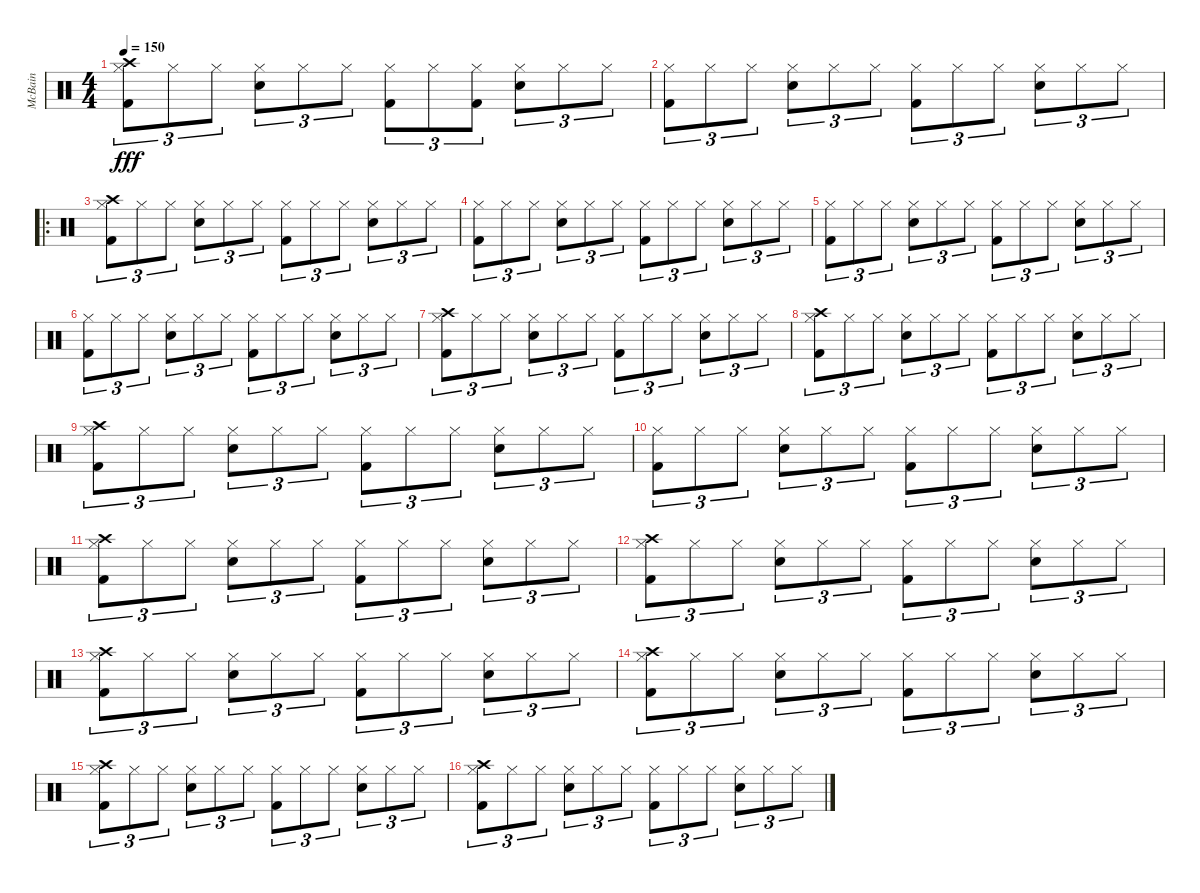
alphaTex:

\track ("McBain" "McBain") {instrument percussion}
\staff {score}
\articulation defaults
\ts (4 4)
\tempo 150
\clef neutral
\ks c
("Hi-Hat (closed)" "Kick (hit) 2" "Crash high (hit)").8{tu (3 2) dy fff} "Hi-Hat (closed)".8{tu (3 2)} "Hi-Hat (closed)".8{tu (3 2)} ("Hi-Hat (closed)" "Snare (hit) 2").8{tu (3 2)} "Hi-Hat (closed)".8{tu (3 2)} "Hi-Hat (closed)".8{tu (3 2)} ("Hi-Hat (closed)" "Kick (hit) 2").8{tu (3 2)} "Hi-Hat (closed)".8{tu (3 2)} ("Hi-Hat (closed)" "Kick (hit) 2").8{tu (3 2)} ("Hi-Hat (closed)" "Snare (hit) 2").8{tu (3 2)} "Hi-Hat (closed)".8{tu (3 2)} "Hi-Hat (closed)".8{tu (3 2)} |
("Hi-Hat (closed)" "Kick (hit) 2").8{tu (3 2)} "Hi-Hat (closed)".8{tu (3 2)} "Hi-Hat (closed)".8{tu (3 2)} ("Hi-Hat (closed)" "Snare (hit) 2").8{tu (3 2)} "Hi-Hat (closed)".8{tu (3 2)} "Hi-Hat (closed)".8{tu (3 2)} ("Hi-Hat (closed)" "Kick (hit) 2").8{tu (3 2)} "Hi-Hat (closed)".8{tu (3 2)} "Hi-Hat (closed)".8{tu (3 2)} ("Hi-Hat (closed)" "Snare (hit) 2").8{tu (3 2)} "Hi-Hat (closed)".8{tu (3 2)} "Hi-Hat (closed)".8{tu (3 2)} |
\ro
("Hi-Hat (closed)" "Kick (hit) 2" "Crash high (hit)").8{tu (3 2)} "Hi-Hat (closed)".8{tu (3 2)} "Hi-Hat (closed)".8{tu (3 2)} ("Hi-Hat (closed)" "Snare (hit) 2").8{tu (3 2)} "Hi-Hat (closed)".8{tu (3 2)} "Hi-Hat (closed)".8{tu (3 2)} ("Hi-Hat (closed)" "Kick (hit) 2").8{tu (3 2)} "Hi-Hat (closed)".8{tu (3 2)} "Hi-Hat (closed)".8{tu (3 2)} ("Hi-Hat (closed)" "Snare (hit) 2").8{tu (3 2)} "Hi-Hat (closed)".8{tu (3 2)} "Hi-Hat (closed)".8{tu (3 2)} |
("Hi-Hat (closed)" "Kick (hit) 2").8{tu (3 2)} "Hi-Hat (closed)".8{tu (3 2)} "Hi-Hat (closed)".8{tu (3 2)} ("Hi-Hat (closed)" "Snare (hit) 2").8{tu (3 2)} "Hi-Hat (closed)".8{tu (3 2)} "Hi-Hat (closed)".8{tu (3 2)} ("Hi-Hat (closed)" "Kick (hit) 2").8{tu (3 2)} "Hi-Hat (closed)".8{tu (3 2)} "Hi-Hat (closed)".8{tu (3 2)} ("Hi-Hat (closed)" "Snare (hit) 2").8{tu (3 2)} "Hi-Hat (closed)".8{tu (3 2)} "Hi-Hat (closed)".8{tu (3 2)} |
("Hi-Hat (closed)" "Kick (hit) 2").8{tu (3 2)} "Hi-Hat (closed)".8{tu (3 2)} "Hi-Hat (closed)".8{tu (3 2)} ("Hi-Hat (closed)" "Snare (hit) 2").8{tu (3 2)} "Hi-Hat (closed)".8{tu (3 2)} "Hi-Hat (closed)".8{tu (3 2)} ("Hi-Hat (closed)" "Kick (hit) 2").8{tu (3 2)} "Hi-Hat (closed)".8{tu (3 2)} "Hi-Hat (closed)".8{tu (3 2)} ("Hi-Hat (closed)" "Snare (hit) 2").8{tu (3 2)} "Hi-Hat (closed)".8{tu (3 2)} "Hi-Hat (closed)".8{tu (3 2)} |
("Hi-Hat (closed)" "Kick (hit) 2").8{tu (3 2)} "Hi-Hat (closed)".8{tu (3 2)} "Hi-Hat (closed)".8{tu (3 2)} ("Hi-Hat (closed)" "Snare (hit) 2").8{tu (3 2)} "Hi-Hat (closed)".8{tu (3 2)} "Hi-Hat (closed)".8{tu (3 2)} ("Hi-Hat (closed)" "Kick (hit) 2").8{tu (3 2)} "Hi-Hat (closed)".8{tu (3 2)} "Hi-Hat (closed)".8{tu (3 2)} ("Hi-Hat (closed)" "Snare (hit) 2").8{tu (3 2)} "Hi-Hat (closed)".8{tu (3 2)} "Hi-Hat (closed)".8{tu (3 2)} |
("Hi-Hat (closed)" "Kick (hit) 2" "Crash high (hit)").8{tu (3 2)} "Hi-Hat (closed)".8{tu (3 2)} "Hi-Hat (closed)".8{tu (3 2)} ("Hi-Hat (closed)" "Snare (hit) 2").8{tu (3 2)} "Hi-Hat (closed)".8{tu (3 2)} "Hi-Hat (closed)".8{tu (3 2)} ("Hi-Hat (closed)" "Kick (hit) 2").8{tu (3 2)} "Hi-Hat (closed)".8{tu (3 2)} "Hi-Hat (closed)".8{tu (3 2)} ("Hi-Hat (closed)" "Snare (hit) 2").8{tu (3 2)} "Hi-Hat (closed)".8{tu (3 2)} "Hi-Hat (closed)".8{tu (3 2)} |
("Hi-Hat (closed)" "Kick (hit) 2" "Crash high (hit)").8{tu (3 2)} "Hi-Hat (closed)".8{tu (3 2)} "Hi-Hat (closed)".8{tu (3 2)} ("Hi-Hat (closed)" "Snare (hit) 2").8{tu (3 2)} "Hi-Hat (closed)".8{tu (3 2)} "Hi-Hat (closed)".8{tu (3 2)} ("Hi-Hat (closed)" "Kick (hit) 2").8{tu (3 2)} "Hi-Hat (closed)".8{tu (3 2)} "Hi-Hat (closed)".8{tu (3 2)} ("Hi-Hat (closed)" "Snare (hit) 2").8{tu (3 2)} "Hi-Hat (closed)".8{tu (3 2)} "Hi-Hat (closed)".8{tu (3 2)} |
("Hi-Hat (closed)" "Kick (hit) 2" "Crash high (hit)").8{tu (3 2)} "Hi-Hat (closed)".8{tu (3 2)} "Hi-Hat (closed)".8{tu (3 2)} ("Hi-Hat (closed)" "Snare (hit) 2").8{tu (3 2)} "Hi-Hat (closed)".8{tu (3 2)} "Hi-Hat (closed)".8{tu (3 2)} ("Hi-Hat (closed)" "Kick (hit) 2").8{tu (3 2)} "Hi-Hat (closed)".8{tu (3 2)} "Hi-Hat (closed)".8{tu (3 2)} ("Hi-Hat (closed)" "Snare (hit) 2").8{tu (3 2)} "Hi-Hat (closed)".8{tu (3 2)} "Hi-Hat (closed)".8{tu (3 2)} |
("Hi-Hat (closed)" "Kick (hit) 2").8{tu (3 2)} "Hi-Hat (closed)".8{tu (3 2)} "Hi-Hat (closed)".8{tu (3 2)} ("Hi-Hat (closed)" "Snare (hit) 2").8{tu (3 2)} "Hi-Hat (closed)".8{tu (3 2)} "Hi-Hat (closed)".8{tu (3 2)} ("Hi-Hat (closed)" "Kick (hit) 2").8{tu (3 2)} "Hi-Hat (closed)".8{tu (3 2)} "Hi-Hat (closed)".8{tu (3 2)} ("Hi-Hat (closed)" "Snare (hit) 2").8{tu (3 2)} "Hi-Hat (closed)".8{tu (3 2)} "Hi-Hat (closed)".8{tu (3 2)} |
("Hi-Hat (closed)" "Kick (hit) 2" "Crash high (hit)").8{tu (3 2)} "Hi-Hat (closed)".8{tu (3 2)} "Hi-Hat (closed)".8{tu (3 2)} ("Hi-Hat (closed)" "Snare (hit) 2").8{tu (3 2)} "Hi-Hat (closed)".8{tu (3 2)} "Hi-Hat (closed)".8{tu (3 2)} ("Hi-Hat (closed)" "Kick (hit) 2").8{tu (3 2)} "Hi-Hat (closed)".8{tu (3 2)} "Hi-Hat (closed)".8{tu (3 2)} ("Hi-Hat (closed)" "Snare (hit) 2").8{tu (3 2)} "Hi-Hat (closed)".8{tu (3 2)} "Hi-Hat (closed)".8{tu (3 2)} |
("Hi-Hat (closed)" "Kick (hit) 2" "Crash high (hit)").8{tu (3 2)} "Hi-Hat (closed)".8{tu (3 2)} "Hi-Hat (closed)".8{tu (3 2)} ("Hi-Hat (closed)" "Snare (hit) 2").8{tu (3 2)} "Hi-Hat (closed)".8{tu (3 2)} "Hi-Hat (closed)".8{tu (3 2)} ("Hi-Hat (closed)" "Kick (hit) 2").8{tu (3 2)} "Hi-Hat (closed)".8{tu (3 2)} "Hi-Hat (closed)".8{tu (3 2)} ("Hi-Hat (closed)" "Snare (hit) 2").8{tu (3 2)} "Hi-Hat (closed)".8{tu (3 2)} "Hi-Hat (closed)".8{tu (3 2)} |
("Hi-Hat (closed)" "Kick (hit) 2" "Crash high (hit)").8{tu (3 2)} "Hi-Hat (closed)".8{tu (3 2)} "Hi-Hat (closed)".8{tu (3 2)} ("Hi-Hat (closed)" "Snare (hit) 2").8{tu (3 2)} "Hi-Hat (closed)".8{tu (3 2)} "Hi-Hat (closed)".8{tu (3 2)} ("Hi-Hat (closed)" "Kick (hit) 2").8{tu (3 2)} "Hi-Hat (closed)".8{tu (3 2)} "Hi-Hat (closed)".8{tu (3 2)} ("Hi-Hat (closed)" "Snare (hit) 2").8{tu (3 2)} "Hi-Hat (closed)".8{tu (3 2)} "Hi-Hat (closed)".8{tu (3 2)} |
("Hi-Hat (closed)" "Kick (hit) 2" "Crash high (hit)").8{tu (3 2)} "Hi-Hat (closed)".8{tu (3 2)} "Hi-Hat (closed)".8{tu (3 2)} ("Hi-Hat (closed)" "Snare (hit) 2").8{tu (3 2)} "Hi-Hat (closed)".8{tu (3 2)} "Hi-Hat (closed)".8{tu (3 2)} ("Hi-Hat (closed)" "Kick (hit) 2").8{tu (3 2)} "Hi-Hat (closed)".8{tu (3 2)} "Hi-Hat (closed)".8{tu (3 2)} ("Hi-Hat (closed)" "Snare (hit) 2").8{tu (3 2)} "Hi-Hat (closed)".8{tu (3 2)} "Hi-Hat (closed)".8{tu (3 2)} |
("Hi-Hat (closed)" "Kick (hit) 2" "Crash high (hit)").8{tu (3 2)} "Hi-Hat (closed)".8{tu (3 2)} "Hi-Hat (closed)".8{tu (3 2)} ("Hi-Hat (closed)" "Snare (hit) 2").8{tu (3 2)} "Hi-Hat (closed)".8{tu (3 2)} "Hi-Hat (closed)".8{tu (3 2)} ("Hi-Hat (closed)" "Kick (hit) 2").8{tu (3 2)} "Hi-Hat (closed)".8{tu (3 2)} "Hi-Hat (closed)".8{tu (3 2)} ("Hi-Hat (closed)" "Snare (hit) 2").8{tu (3 2)} "Hi-Hat (closed)".8{tu (3 2)} "Hi-Hat (closed)".8{tu (3 2)} |
("Hi-Hat (closed)" "Kick (hit) 2" "Crash high (hit)").8{tu (3 2)} "Hi-Hat (closed)".8{tu (3 2)} "Hi-Hat (closed)".8{tu (3 2)} ("Hi-Hat (closed)" "Snare (hit) 2").8{tu (3 2)} "Hi-Hat (closed)".8{tu (3 2)} "Hi-Hat (closed)".8{tu (3 2)} ("Hi-Hat (closed)" "Kick (hit) 2").8{tu (3 2)} "Hi-Hat (closed)".8{tu (3 2)} "Hi-Hat (closed)".8{tu (3 2)} ("Hi-Hat (closed)" "Snare (hit) 2").8{tu (3 2)} "Hi-Hat (closed)".8{tu (3 2)} "Hi-Hat (closed)".8{tu (3 2)}
